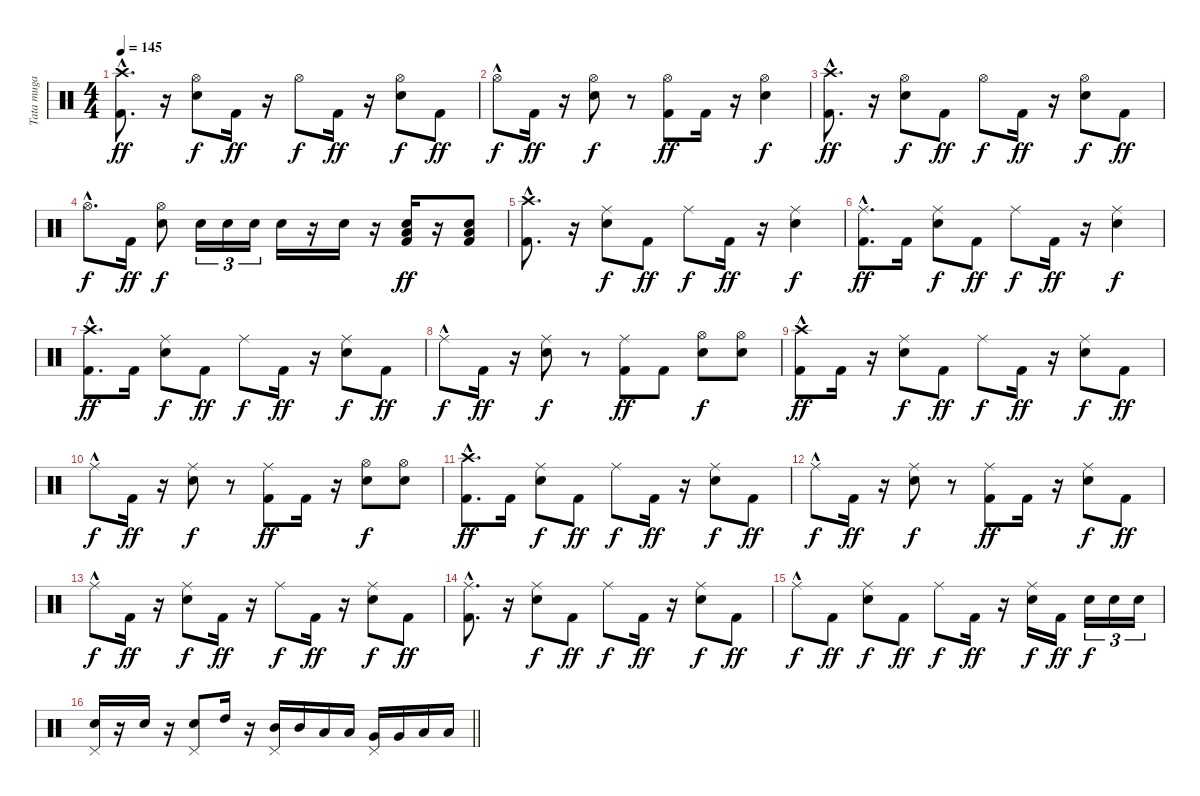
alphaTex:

\track ("Tata muga" "Tata muga") {instrument percussion}
\staff {score}
\articulation defaults
\ts (4 4)
\tempo 145
\clef neutral
\ks c
("Crash high (hit)"{hac} "Kick (hit) 2"{hac}).8{d dy ff} r.16 ("Hi-Hat (open)" "Electric Snare (hit)").8{dy f} "Kick (hit) 2".16{dy ff} r.16 "Hi-Hat (open)".8{dy f} "Kick (hit) 2".16{dy ff} r.16 ("Hi-Hat (open)" "Electric Snare (hit)").8{dy f} "Kick (hit) 2".8{dy ff} |
"Hi-Hat (open)"{hac}.8{dy f} "Kick (hit) 2".16{dy ff} r.16 ("Hi-Hat (open)" "Electric Snare (hit)").8{dy f} r.8 ("Hi-Hat (open)" "Kick (hit) 2").8{dy ff} "Kick (hit) 2".16 r.16 ("Hi-Hat (open)" "Electric Snare (hit)").4{dy f} |
("Crash high (hit)"{hac} "Kick (hit) 2"{hac}).8{d dy ff} r.16 ("Hi-Hat (open)" "Electric Snare (hit)").8{dy f} "Kick (hit) 2".8{dy ff} "Hi-Hat (open)".8{dy f} "Kick (hit) 2".16{dy ff} r.16 ("Hi-Hat (open)" "Electric Snare (hit)").8{dy f} "Kick (hit) 2".8{dy ff} |
"Hi-Hat (open)"{hac}.8{d dy f} "Kick (hit) 2".16{dy ff} ("Hi-Hat (open)" "Electric Snare (hit)").8{dy f} "Electric Snare (hit)".16{tu (3 2)} "Electric Snare (hit)".16{tu (3 2)} "Electric Snare (hit)".16{tu (3 2)} "Electric Snare (hit)".16 r.16 "Electric Snare (hit)".16 r.16 ("Low Floor Tom (hit)" "Electric Snare (hit)" "Kick (hit) 2").16{dy ff} r.16 ("Low Floor Tom (hit)" "Electric Snare (hit)" "Kick (hit) 2").8 |
("Crash high (hit)"{hac} "Kick (hit) 2"{hac}).8{d} r.16 ("Ride (middle)" "Electric Snare (hit)").8{dy f} "Kick (hit) 2".8{dy ff} "Ride (middle)".8{dy f} "Kick (hit) 2".16{dy ff} r.16 ("Ride (middle)" "Electric Snare (hit)").4{dy f} |
("Ride (middle)"{hac} "Kick (hit) 2"{hac}).8{d dy ff} "Kick (hit) 2".16 ("Ride (middle)" "Electric Snare (hit)").8{dy f} "Kick (hit) 2".8{dy ff} "Ride (middle)".8{dy f} "Kick (hit) 2".16{dy ff} r.16 ("Ride (middle)" "Electric Snare (hit)").4{dy f} |
("Crash high (hit)"{hac} "Kick (hit) 2"{hac}).8{d dy ff} "Kick (hit) 2".16 ("Ride (middle)" "Electric Snare (hit)").8{dy f} "Kick (hit) 2".8{dy ff} "Ride (middle)".8{dy f} "Kick (hit) 2".16{dy ff} r.16 ("Ride (middle)" "Electric Snare (hit)").8{dy f} "Kick (hit) 2".8{dy ff} |
"Ride (middle)"{hac}.8{dy f} "Kick (hit) 2".16{dy ff} r.16 ("Ride (middle)" "Electric Snare (hit)").8{dy f} r.8 ("Ride (middle)" "Kick (hit) 2").8{dy ff} "Kick (hit) 2".8 ("Hi-Hat (open)" "Electric Snare (hit)").8{dy f} ("Electric Snare (hit)" "Hi-Hat (open)").8 |
("Crash high (hit)"{hac} "Kick (hit) 2").8{dy ff} "Kick (hit) 2".16 r.16 ("Ride (middle)" "Electric Snare (hit)").8{dy f} "Kick (hit) 2".8{dy ff} "Ride (middle)".8{dy f} "Kick (hit) 2".16{dy ff} r.16 ("Ride (middle)" "Electric Snare (hit)").8{dy f} "Kick (hit) 2".8{dy ff} |
"Ride (middle)"{hac}.8{dy f} "Kick (hit) 2".16{dy ff} r.16 ("Ride (middle)" "Electric Snare (hit)").8{dy f} r.8 ("Ride (middle)" "Kick (hit) 2").8{dy ff} "Kick (hit) 2".16 r.16 ("Hi-Hat (open)" "Electric Snare (hit)").8{dy f} ("Hi-Hat (open)" "Electric Snare (hit)").8 |
("Crash high (hit)"{hac} "Kick (hit) 2"{hac}).8{d dy ff} "Kick (hit) 2".16 ("Ride (middle)" "Electric Snare (hit)").8{dy f} "Kick (hit) 2".8{dy ff} "Ride (middle)".8{dy f} "Kick (hit) 2".16{dy ff} r.16 ("Ride (middle)" "Electric Snare (hit)").8{dy f} "Kick (hit) 2".8{dy ff} |
"Ride (middle)"{hac}.8{dy f} "Kick (hit) 2".16{dy ff} r.16 ("Ride (middle)" "Electric Snare (hit)").8{dy f} r.8 ("Ride (middle)" "Kick (hit) 2").8{dy ff} "Kick (hit) 2".16 r.16 ("Ride (middle)" "Electric Snare (hit)").8{dy f} "Kick (hit) 2".8{dy ff} |
"Ride (middle)"{hac}.8{dy f} "Kick (hit) 2".16{dy ff} r.16 ("Ride (middle)" "Electric Snare (hit)").8{dy f} "Kick (hit) 2".16{dy ff} r.16 "Ride (middle)".8{dy f} "Kick (hit) 2".16{dy ff} r.16 ("Ride (middle)" "Electric Snare (hit)").8{dy f} "Kick (hit) 2".8{dy ff} |
("Ride (middle)"{hac} "Kick (hit) 2").8{d} r.16 ("Ride (middle)" "Electric Snare (hit)").8{dy f} "Kick (hit) 2".8{dy ff} "Ride (middle)".8{dy f} "Kick (hit) 2".16{dy ff} r.16 ("Ride (middle)" "Electric Snare (hit)").8{dy f} "Kick (hit) 2".8{dy ff} |
"Ride (middle)"{hac}.8{dy f} "Kick (hit) 2".8{dy ff} ("Ride (middle)" "Electric Snare (hit)").8{dy f} "Kick (hit) 2".8{dy ff} "Ride (middle)".8{dy f} "Kick (hit) 2".16{dy ff} r.16 ("Ride (middle)" "Electric Snare (hit)").16{dy f} "Kick (hit) 2".16{dy ff} "Electric Snare (hit)".16{tu (3 2) dy f} "Electric Snare (hit)".16{tu (3 2)} "Electric Snare (hit)".16{tu (3 2)} |
\barLineRight lightlight
("Electric Snare (hit)" "Pedal Hi-Hat (hit)").16 r.16 "Electric Snare (hit)".16 r.16 ("Pedal Hi-Hat (hit)" "Electric Snare (hit)").8 "High Tom (hit)".16 r.16 ("Mid Tom (hit)" "Pedal Hi-Hat (hit)").16 "Mid Tom (hit)".16 "Low Tom (hit)".16 "Low Tom (hit)".16 ("Pedal Hi-Hat (hit)" "Very Low Tom (hit)").16 "Very Low Tom (hit)".16 "Low Floor Tom (hit)".16 "Low Floor Tom (hit)".16
